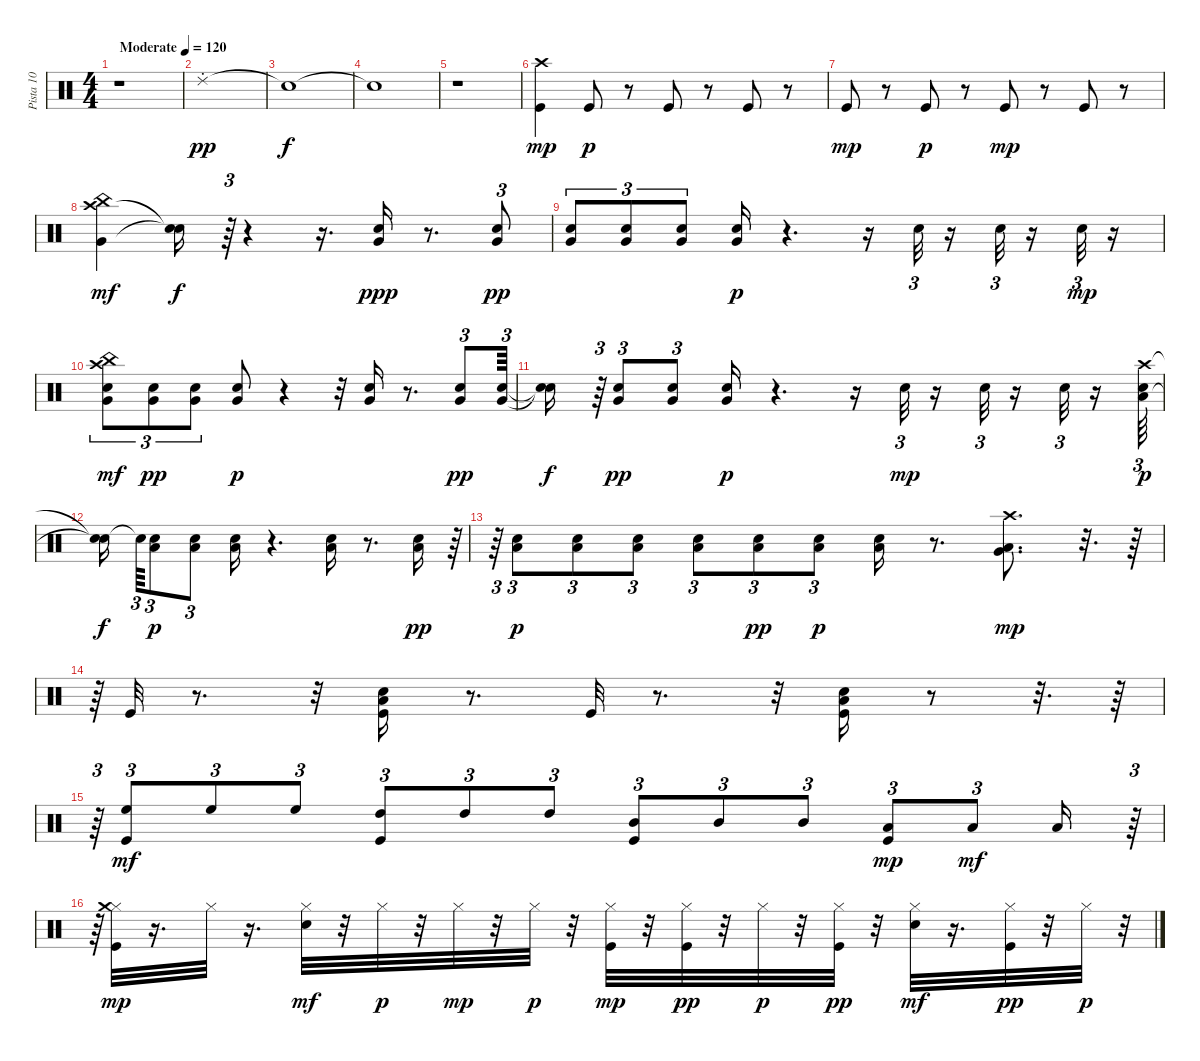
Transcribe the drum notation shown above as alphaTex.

\track ("Pista 10" "Pista 10") {instrument percussion}
\staff {score}
\articulation defaults
\ts (4 4)
\tempo (120 "Moderate")
\clef neutral
\ks c
r.1{dy pp} |
"Ride (choke) 2".1 |
"Snare (hit)"{t}.1{dy f} |
"Snare (hit)"{t}.1 |
r.1 |
("Kick (hit)" "Crash high (hit)").4{dy mp} "Kick (hit)".8{dy p} r.8 "Kick (hit)".8 r.8 "Kick (hit)".8 r.8 |
"Kick (hit)".8{dy mp} r.8 "Kick (hit)".8{dy p} r.8 "Kick (hit)".8{dy mp} r.8 "Kick (hit)".8 r.8 |
("Very Low Tom (hit)" "Crash high (hit)" "China (hit)").4{dy mf} ("Snare (hit)"{t} "Snare (hit)"{t}).16{dy f} r.64{tu (3 2)} r.4 r.16{d} ("Snare (hit) 2" "Very Low Tom (hit)").16{dy ppp} r.8{d} ("Snare (hit) 2" "Very Low Tom (hit)").8{tu (3 2) dy pp} |
("Snare (hit) 2" "Very Low Tom (hit)").8{tu (3 2)} ("Snare (hit) 2" "Very Low Tom (hit)").8{tu (3 2)} ("Snare (hit) 2" "Very Low Tom (hit)").8{tu (3 2)} ("Snare (hit) 2" "Very Low Tom (hit)").16{dy p} r.4{d} r.16 "Snare (hit) 2".32{tu (3 2)} r.16 "Snare (hit) 2".32{tu (3 2)} r.16 "Snare (hit) 2".32{tu (3 2) dy mp} r.16 |
("Crash high (hit)" "Snare (hit) 2" "Very Low Tom (hit)" "China (hit)").8{tu (3 2) dy mf} ("Snare (hit) 2" "Very Low Tom (hit)").8{tu (3 2) dy pp} ("Snare (hit) 2" "Very Low Tom (hit)").8{tu (3 2)} ("Snare (hit) 2" "Very Low Tom (hit)").8{dy p} r.4 r.32 ("Snare (hit) 2" "Very Low Tom (hit)").16 r.8{d} ("Snare (hit) 2" "Very Low Tom (hit)").8{tu (3 2) dy pp} ("Snare (hit) 2" "Very Low Tom (hit)").64{tu (3 2)} |
("Snare (hit)"{t} "Snare (hit)"{t}).16{dy f} r.64{tu (3 2)} ("Snare (hit) 2" "Very Low Tom (hit)").8{tu (3 2) dy pp} ("Snare (hit) 2" "Very Low Tom (hit)").8{tu (3 2)} ("Snare (hit) 2" "Very Low Tom (hit)").16{dy p} r.4{d} r.16 "Snare (hit) 2".32{tu (3 2) dy mp} r.16 "Snare (hit) 2".32{tu (3 2)} r.16 "Snare (hit) 2".32{tu (3 2)} r.16 ("Low Tom (hit)" "Crash high (hit)" "Snare (hit) 2").64{tu (3 2) dy p} |
("Snare (hit)"{t} "Snare (hit)"{t}).16{dy f beam splitsecondary} "Snare (hit)"{t}.64{tu (3 2)} ("Low Tom (hit)" "Snare (hit) 2").8{tu (3 2) dy p} ("Low Tom (hit)" "Snare (hit) 2").8{tu (3 2)} ("Low Tom (hit)" "Snare (hit) 2").16 r.4{d} ("Low Tom (hit)" "Snare (hit) 2").16 r.8{d} ("Low Tom (hit)" "Snare (hit) 2").16{dy pp} r.64{tu (3 2)} |
r.64{tu (3 2)} ("Low Tom (hit)" "Snare (hit) 2").8{tu (3 2) dy p} ("Low Tom (hit)" "Snare (hit) 2").8{tu (3 2)} ("Low Tom (hit)" "Snare (hit) 2").8{tu (3 2)} ("Low Tom (hit)" "Snare (hit) 2").8{tu (3 2)} ("Low Tom (hit)" "Snare (hit) 2").8{tu (3 2) dy pp} ("Low Tom (hit)" "Snare (hit) 2").8{tu (3 2) dy p} ("Low Tom (hit)" "Snare (hit) 2").16 r.8{d} ("Low Floor Tom (hit)" "Crash high (hit)" "Very Low Tom (hit)").8{d dy mp} r.32{d} r.64 |
r.64{tu (3 2)} "Kick (hit)".32 r.8{d} r.32 ("Kick (hit)" "Low Tom (hit)" "Snare (hit) 2").16 r.8{d} "Kick (hit)".32 r.8{d} r.32 ("Kick (hit)" "Low Tom (hit)" "Snare (hit) 2").16 r.8 r.32{d} r.64 |
r.64{tu (3 2)} ("Kick (hit)" "High Floor Tom (hit)").8{tu (3 2) dy mf} "High Floor Tom (hit)".8{tu (3 2)} "High Floor Tom (hit)".8{tu (3 2)} ("Kick (hit)" "High Tom (hit)").8{tu (3 2)} "High Tom (hit)".8{tu (3 2)} "High Tom (hit)".8{tu (3 2)} ("Kick (hit)" "Mid Tom (hit)").8{tu (3 2)} "Mid Tom (hit)".8{tu (3 2)} "Mid Tom (hit)".8{tu (3 2)} ("Kick (hit)" "Low Tom (hit)").8{tu (3 2) dy mp} "Low Tom (hit)".8{tu (3 2) dy mf} "Low Tom (hit)".16 r.64{tu (3 2)} |
r.64{tu (3 2)} ("Kick (hit)" "Hi-Hat (closed)" "Crash medium (hit)").32{dy mp} r.16{d} "Hi-Hat (closed)".32 r.16{d} ("Hi-Hat (closed)" "Snare (hit) 2").32{dy mf} r.32 "Hi-Hat (closed)".32{dy p} r.32 "Hi-Hat (closed)".32{dy mp} r.32 "Hi-Hat (closed)".32{dy p} r.32 ("Kick (hit)" "Hi-Hat (closed)").32{dy mp} r.32 ("Hi-Hat (closed)" "Kick (hit)").32{dy pp} r.32 "Hi-Hat (closed)".32{dy p} r.32 ("Hi-Hat (closed)" "Kick (hit)").32{dy pp} r.32 ("Hi-Hat (closed)" "Snare (hit) 2").32{dy mf} r.16{d} ("Hi-Hat (closed)" "Kick (hit)").32{dy pp} r.32 "Hi-Hat (closed)".32{dy p} r.32{tu (3 2)}
